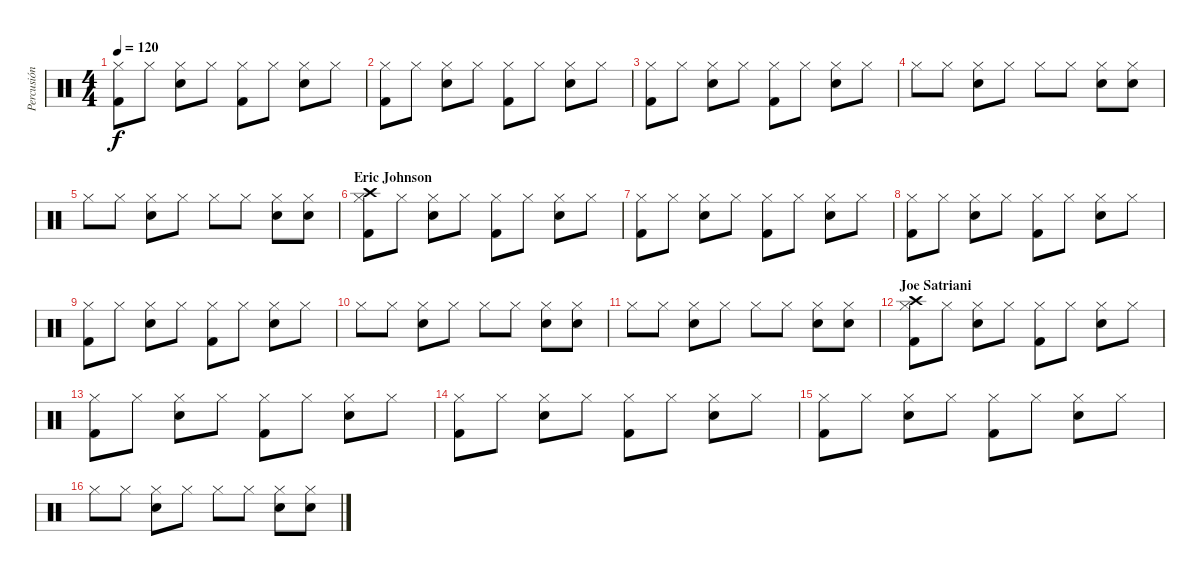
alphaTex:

\track ("Percusión" "Percusión") {instrument percussion}
\staff {score}
\articulation defaults
\ts (4 4)
\tempo 120
\clef neutral
\ks c
("Kick (hit) 2" "Hi-Hat (closed)").8{dy f} "Hi-Hat (closed)".8 ("Electric Snare (hit)" "Hi-Hat (closed)").8 "Hi-Hat (closed)".8 ("Kick (hit) 2" "Hi-Hat (closed)").8 "Hi-Hat (closed)".8 ("Electric Snare (hit)" "Hi-Hat (closed)").8 "Hi-Hat (closed)".8 |
("Kick (hit) 2" "Hi-Hat (closed)").8 "Hi-Hat (closed)".8 ("Electric Snare (hit)" "Hi-Hat (closed)").8 "Hi-Hat (closed)".8 ("Kick (hit) 2" "Hi-Hat (closed)").8 "Hi-Hat (closed)".8 ("Electric Snare (hit)" "Hi-Hat (closed)").8 "Hi-Hat (closed)".8 |
("Kick (hit) 2" "Hi-Hat (closed)").8 "Hi-Hat (closed)".8 ("Electric Snare (hit)" "Hi-Hat (closed)").8 "Hi-Hat (closed)".8 ("Kick (hit) 2" "Hi-Hat (closed)").8 "Hi-Hat (closed)".8 ("Electric Snare (hit)" "Hi-Hat (closed)").8 "Hi-Hat (closed)".8 |
"Hi-Hat (closed)".8 "Hi-Hat (closed)".8 ("Electric Snare (hit)" "Hi-Hat (closed)").8 "Hi-Hat (closed)".8 "Hi-Hat (closed)".8 "Hi-Hat (closed)".8 ("Electric Snare (hit)" "Hi-Hat (closed)").8 ("Electric Snare (hit)" "Hi-Hat (closed)").8 |
"Hi-Hat (closed)".8 "Hi-Hat (closed)".8 ("Electric Snare (hit)" "Hi-Hat (closed)").8 "Hi-Hat (closed)".8 "Hi-Hat (closed)".8 "Hi-Hat (closed)".8 ("Electric Snare (hit)" "Hi-Hat (closed)").8 ("Electric Snare (hit)" "Hi-Hat (closed)").8 |
\section ("" "Eric Johnson")
("Kick (hit) 2" "Hi-Hat (closed)" "Crash high (hit)").8 "Hi-Hat (closed)".8 ("Electric Snare (hit)" "Hi-Hat (closed)").8 "Hi-Hat (closed)".8 ("Kick (hit) 2" "Hi-Hat (closed)").8 "Hi-Hat (closed)".8 ("Electric Snare (hit)" "Hi-Hat (closed)").8 "Hi-Hat (closed)".8 |
("Kick (hit) 2" "Hi-Hat (closed)").8 "Hi-Hat (closed)".8 ("Electric Snare (hit)" "Hi-Hat (closed)").8 "Hi-Hat (closed)".8 ("Kick (hit) 2" "Hi-Hat (closed)").8 "Hi-Hat (closed)".8 ("Electric Snare (hit)" "Hi-Hat (closed)").8 "Hi-Hat (closed)".8 |
("Kick (hit) 2" "Hi-Hat (closed)").8 "Hi-Hat (closed)".8 ("Electric Snare (hit)" "Hi-Hat (closed)").8 "Hi-Hat (closed)".8 ("Kick (hit) 2" "Hi-Hat (closed)").8 "Hi-Hat (closed)".8 ("Electric Snare (hit)" "Hi-Hat (closed)").8 "Hi-Hat (closed)".8 |
("Kick (hit) 2" "Hi-Hat (closed)").8 "Hi-Hat (closed)".8 ("Electric Snare (hit)" "Hi-Hat (closed)").8 "Hi-Hat (closed)".8 ("Kick (hit) 2" "Hi-Hat (closed)").8 "Hi-Hat (closed)".8 ("Electric Snare (hit)" "Hi-Hat (closed)").8 "Hi-Hat (closed)".8 |
"Hi-Hat (closed)".8 "Hi-Hat (closed)".8 ("Electric Snare (hit)" "Hi-Hat (closed)").8 "Hi-Hat (closed)".8 "Hi-Hat (closed)".8 "Hi-Hat (closed)".8 ("Electric Snare (hit)" "Hi-Hat (closed)").8 ("Electric Snare (hit)" "Hi-Hat (closed)").8 |
"Hi-Hat (closed)".8 "Hi-Hat (closed)".8 ("Electric Snare (hit)" "Hi-Hat (closed)").8 "Hi-Hat (closed)".8 "Hi-Hat (closed)".8 "Hi-Hat (closed)".8 ("Electric Snare (hit)" "Hi-Hat (closed)").8 ("Electric Snare (hit)" "Hi-Hat (closed)").8 |
\section ("" "Joe Satriani")
("Kick (hit) 2" "Hi-Hat (closed)" "Crash high (hit)").8 "Hi-Hat (closed)".8 ("Electric Snare (hit)" "Hi-Hat (closed)").8 "Hi-Hat (closed)".8 ("Kick (hit) 2" "Hi-Hat (closed)").8 "Hi-Hat (closed)".8 ("Electric Snare (hit)" "Hi-Hat (closed)").8 "Hi-Hat (closed)".8 |
("Kick (hit) 2" "Hi-Hat (closed)").8 "Hi-Hat (closed)".8 ("Electric Snare (hit)" "Hi-Hat (closed)").8 "Hi-Hat (closed)".8 ("Kick (hit) 2" "Hi-Hat (closed)").8 "Hi-Hat (closed)".8 ("Electric Snare (hit)" "Hi-Hat (closed)").8 "Hi-Hat (closed)".8 |
("Kick (hit) 2" "Hi-Hat (closed)").8 "Hi-Hat (closed)".8 ("Electric Snare (hit)" "Hi-Hat (closed)").8 "Hi-Hat (closed)".8 ("Kick (hit) 2" "Hi-Hat (closed)").8 "Hi-Hat (closed)".8 ("Electric Snare (hit)" "Hi-Hat (closed)").8 "Hi-Hat (closed)".8 |
("Kick (hit) 2" "Hi-Hat (closed)").8 "Hi-Hat (closed)".8 ("Electric Snare (hit)" "Hi-Hat (closed)").8 "Hi-Hat (closed)".8 ("Kick (hit) 2" "Hi-Hat (closed)").8 "Hi-Hat (closed)".8 ("Electric Snare (hit)" "Hi-Hat (closed)").8 "Hi-Hat (closed)".8 |
"Hi-Hat (closed)".8 "Hi-Hat (closed)".8 ("Electric Snare (hit)" "Hi-Hat (closed)").8 "Hi-Hat (closed)".8 "Hi-Hat (closed)".8 "Hi-Hat (closed)".8 ("Electric Snare (hit)" "Hi-Hat (closed)").8 ("Electric Snare (hit)" "Hi-Hat (closed)").8
